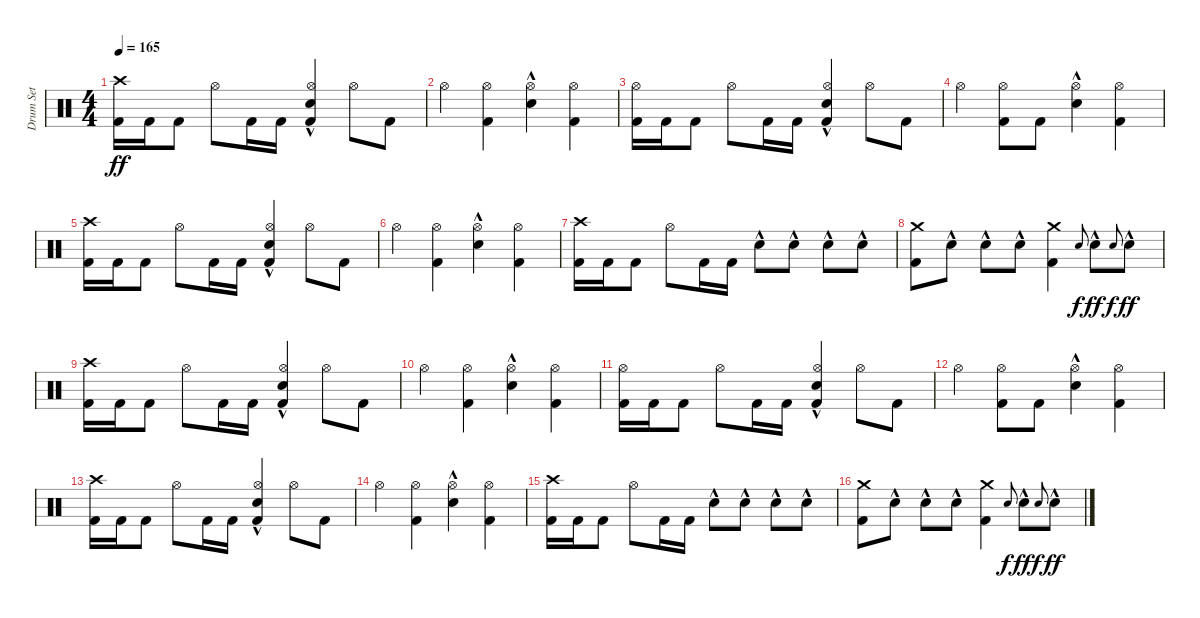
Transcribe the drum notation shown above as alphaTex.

\track ("Drum Set" "Drum Set") {instrument percussion}
\staff {score}
\articulation defaults
\ts (4 4)
\tempo 165
\clef neutral
\ks c
("Crash high (hit)" "Kick (hit) 2").16{dy ff} "Kick (hit) 2".16 "Kick (hit) 2".8 "Hi-Hat (open)".8 "Kick (hit) 2".16 "Kick (hit) 2".16 ("Hi-Hat (open)" "Snare (hit) 2"{hac} "Kick (hit) 2").4 "Hi-Hat (open)".8 "Kick (hit) 2".8 |
"Hi-Hat (open)".4 ("Hi-Hat (open)" "Kick (hit) 2").4 ("Hi-Hat (open)" "Snare (hit) 2"{hac}).4 ("Hi-Hat (open)" "Kick (hit) 2").4 |
("Hi-Hat (open)" "Kick (hit) 2").16 "Kick (hit) 2".16 "Kick (hit) 2".8 "Hi-Hat (open)".8 "Kick (hit) 2".16 "Kick (hit) 2".16 ("Hi-Hat (open)" "Snare (hit) 2"{hac} "Kick (hit) 2").4 "Hi-Hat (open)".8 "Kick (hit) 2".8 |
"Hi-Hat (open)".4 ("Hi-Hat (open)" "Kick (hit) 2").8 "Kick (hit) 2".8 ("Hi-Hat (open)" "Snare (hit) 2"{hac}).4 ("Hi-Hat (open)" "Kick (hit) 2").4 |
("Crash high (hit)" "Kick (hit) 2").16 "Kick (hit) 2".16 "Kick (hit) 2".8 "Hi-Hat (open)".8 "Kick (hit) 2".16 "Kick (hit) 2".16 ("Hi-Hat (open)" "Snare (hit) 2"{hac} "Kick (hit) 2").4 "Hi-Hat (open)".8 "Kick (hit) 2".8 |
"Hi-Hat (open)".4 ("Hi-Hat (open)" "Kick (hit) 2").4 ("Hi-Hat (open)" "Snare (hit) 2"{hac}).4 ("Hi-Hat (open)" "Kick (hit) 2").4 |
("Crash high (hit)" "Kick (hit) 2").16 "Kick (hit) 2".16 "Kick (hit) 2".8 "Hi-Hat (open)".8 "Kick (hit) 2".16 "Kick (hit) 2".16 "Snare (hit) 2"{hac}.8 "Snare (hit) 2"{hac}.8 "Snare (hit) 2"{hac}.8 "Snare (hit) 2"{hac}.8 |
("Crash medium (hit)" "Kick (hit) 2").8 "Snare (hit) 2"{hac}.8 "Snare (hit) 2"{hac}.8 "Snare (hit) 2"{hac}.8 ("Crash medium (hit)" "Kick (hit) 2").4 "Snare (hit) 2".8{gr onbeat dy f} "Snare (hit) 2"{hac}.8{dy ff} "Snare (hit) 2".8{gr onbeat dy f} "Snare (hit) 2"{hac}.8{dy ff} |
("Crash high (hit)" "Kick (hit) 2").16 "Kick (hit) 2".16 "Kick (hit) 2".8 "Hi-Hat (open)".8 "Kick (hit) 2".16 "Kick (hit) 2".16 ("Hi-Hat (open)" "Snare (hit) 2"{hac} "Kick (hit) 2").4 "Hi-Hat (open)".8 "Kick (hit) 2".8 |
"Hi-Hat (open)".4 ("Hi-Hat (open)" "Kick (hit) 2").4 ("Hi-Hat (open)" "Snare (hit) 2"{hac}).4 ("Hi-Hat (open)" "Kick (hit) 2").4 |
("Hi-Hat (open)" "Kick (hit) 2").16 "Kick (hit) 2".16 "Kick (hit) 2".8 "Hi-Hat (open)".8 "Kick (hit) 2".16 "Kick (hit) 2".16 ("Hi-Hat (open)" "Snare (hit) 2"{hac} "Kick (hit) 2").4 "Hi-Hat (open)".8 "Kick (hit) 2".8 |
"Hi-Hat (open)".4 ("Hi-Hat (open)" "Kick (hit) 2").8 "Kick (hit) 2".8 ("Hi-Hat (open)" "Snare (hit) 2"{hac}).4 ("Hi-Hat (open)" "Kick (hit) 2").4 |
("Crash high (hit)" "Kick (hit) 2").16 "Kick (hit) 2".16 "Kick (hit) 2".8 "Hi-Hat (open)".8 "Kick (hit) 2".16 "Kick (hit) 2".16 ("Hi-Hat (open)" "Snare (hit) 2"{hac} "Kick (hit) 2").4 "Hi-Hat (open)".8 "Kick (hit) 2".8 |
"Hi-Hat (open)".4 ("Hi-Hat (open)" "Kick (hit) 2").4 ("Hi-Hat (open)" "Snare (hit) 2"{hac}).4 ("Hi-Hat (open)" "Kick (hit) 2").4 |
("Crash high (hit)" "Kick (hit) 2").16 "Kick (hit) 2".16 "Kick (hit) 2".8 "Hi-Hat (open)".8 "Kick (hit) 2".16 "Kick (hit) 2".16 "Snare (hit) 2"{hac}.8 "Snare (hit) 2"{hac}.8 "Snare (hit) 2"{hac}.8 "Snare (hit) 2"{hac}.8 |
("Crash medium (hit)" "Kick (hit) 2").8 "Snare (hit) 2"{hac}.8 "Snare (hit) 2"{hac}.8 "Snare (hit) 2"{hac}.8 ("Crash medium (hit)" "Kick (hit) 2").4 "Snare (hit) 2".8{gr onbeat dy f} "Snare (hit) 2"{hac}.8{dy ff} "Snare (hit) 2".8{gr onbeat dy f} "Snare (hit) 2"{hac}.8{dy ff}
